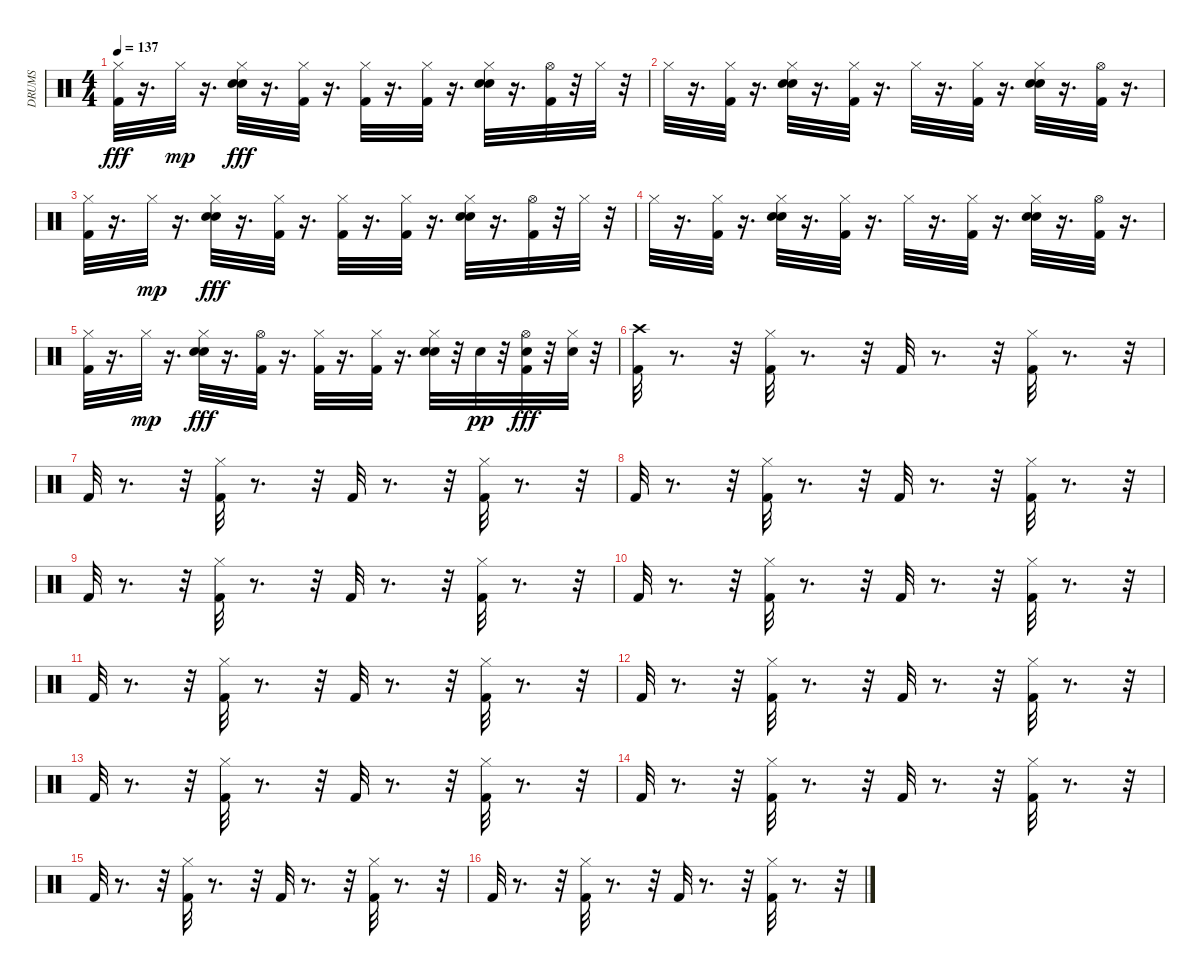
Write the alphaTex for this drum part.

\track ("DRUMS" "DRUMS") {instrument percussion}
\staff {score}
\articulation defaults
\ts (4 4)
\tempo 137
\clef neutral
\ks c
("Hi-Hat (closed)" "Kick (hit) 2").32{dy fff} r.16{d} "Hi-Hat (closed)".32{dy mp} r.16{d} ("Hand Clap (hit)" "Hi-Hat (closed)" "Snare (hit) 2").32{dy fff} r.16{d} ("Hi-Hat (closed)" "Kick (hit) 2").32 r.16{d} ("Hi-Hat (closed)" "Kick (hit) 2").32 r.16{d} ("Hi-Hat (closed)" "Kick (hit) 2").32 r.16{d} ("Hand Clap (hit)" "Hi-Hat (closed)" "Snare (hit) 2").32 r.16{d} ("Hi-Hat (open)" "Kick (hit) 2").32 r.32 "Hi-Hat (closed)".32 r.32 |
"Hi-Hat (closed)".32 r.16{d} ("Hi-Hat (closed)" "Kick (hit) 2").32 r.16{d} ("Hand Clap (hit)" "Hi-Hat (closed)" "Snare (hit) 2").32 r.16{d} ("Hi-Hat (closed)" "Kick (hit) 2").32 r.16{d} "Hi-Hat (closed)".32 r.16{d} ("Hi-Hat (closed)" "Kick (hit) 2").32 r.16{d} ("Hand Clap (hit)" "Hi-Hat (closed)" "Snare (hit) 2").32 r.16{d} ("Hi-Hat (open)" "Kick (hit) 2").32 r.16{d} |
("Hi-Hat (closed)" "Kick (hit) 2").32 r.16{d} "Hi-Hat (closed)".32{dy mp} r.16{d} ("Hand Clap (hit)" "Hi-Hat (closed)" "Snare (hit) 2").32{dy fff} r.16{d} ("Hi-Hat (closed)" "Kick (hit) 2").32 r.16{d} ("Hi-Hat (closed)" "Kick (hit) 2").32 r.16{d} ("Hi-Hat (closed)" "Kick (hit) 2").32 r.16{d} ("Hand Clap (hit)" "Hi-Hat (closed)" "Snare (hit) 2").32 r.16{d} ("Hi-Hat (open)" "Kick (hit) 2").32 r.32 "Hi-Hat (closed)".32 r.32 |
"Hi-Hat (closed)".32 r.16{d} ("Hi-Hat (closed)" "Kick (hit) 2").32 r.16{d} ("Hand Clap (hit)" "Hi-Hat (closed)" "Snare (hit) 2").32 r.16{d} ("Hi-Hat (closed)" "Kick (hit) 2").32 r.16{d} "Hi-Hat (closed)".32 r.16{d} ("Hi-Hat (closed)" "Kick (hit) 2").32 r.16{d} ("Hand Clap (hit)" "Hi-Hat (closed)" "Snare (hit) 2").32 r.16{d} ("Hi-Hat (open)" "Kick (hit) 2").32 r.16{d} |
("Kick (hit) 2" "Hi-Hat (closed)").32 r.16{d} "Hi-Hat (closed)".32{dy mp} r.16{d} ("Hand Clap (hit)" "Hi-Hat (closed)" "Snare (hit) 2").32{dy fff} r.16{d} ("Hi-Hat (open)" "Kick (hit) 2").32 r.16{d} ("Hi-Hat (closed)" "Kick (hit) 2").32 r.16{d} ("Hi-Hat (closed)" "Kick (hit) 2").32 r.16{d} ("Hand Clap (hit)" "Hi-Hat (closed)" "Snare (hit) 2").32 r.32 "Snare (hit) 2".32{dy pp} r.32 ("Hi-Hat (open)" "Snare (hit) 2" "Kick (hit) 2").32{dy fff} r.32 ("Hi-Hat (closed)" "Snare (hit) 2").32 r.32 |
("Crash high (hit)" "Kick (hit) 2").32 r.8{d} r.32 ("Hi-Hat (closed)" "Kick (hit) 2").32 r.8{d} r.32 "Kick (hit) 2".32 r.8{d} r.32 ("Hi-Hat (closed)" "Kick (hit) 2").32 r.8{d} r.32 |
"Kick (hit) 2".32 r.8{d} r.32 ("Hi-Hat (closed)" "Kick (hit) 2").32 r.8{d} r.32 "Kick (hit) 2".32 r.8{d} r.32 ("Hi-Hat (closed)" "Kick (hit) 2").32 r.8{d} r.32 |
"Kick (hit) 2".32 r.8{d} r.32 ("Hi-Hat (closed)" "Kick (hit) 2").32 r.8{d} r.32 "Kick (hit) 2".32 r.8{d} r.32 ("Hi-Hat (closed)" "Kick (hit) 2").32 r.8{d} r.32 |
"Kick (hit) 2".32 r.8{d} r.32 ("Hi-Hat (closed)" "Kick (hit) 2").32 r.8{d} r.32 "Kick (hit) 2".32 r.8{d} r.32 ("Hi-Hat (closed)" "Kick (hit) 2").32 r.8{d} r.32 |
"Kick (hit) 2".32 r.8{d} r.32 ("Hi-Hat (closed)" "Kick (hit) 2").32 r.8{d} r.32 "Kick (hit) 2".32 r.8{d} r.32 ("Hi-Hat (closed)" "Kick (hit) 2").32 r.8{d} r.32 |
"Kick (hit) 2".32 r.8{d} r.32 ("Hi-Hat (closed)" "Kick (hit) 2").32 r.8{d} r.32 "Kick (hit) 2".32 r.8{d} r.32 ("Hi-Hat (closed)" "Kick (hit) 2").32 r.8{d} r.32 |
"Kick (hit) 2".32 r.8{d} r.32 ("Hi-Hat (closed)" "Kick (hit) 2").32 r.8{d} r.32 "Kick (hit) 2".32 r.8{d} r.32 ("Hi-Hat (closed)" "Kick (hit) 2").32 r.8{d} r.32 |
"Kick (hit) 2".32 r.8{d} r.32 ("Hi-Hat (closed)" "Kick (hit) 2").32 r.8{d} r.32 "Kick (hit) 2".32 r.8{d} r.32 ("Hi-Hat (closed)" "Kick (hit) 2").32 r.8{d} r.32 |
"Kick (hit) 2".32 r.8{d} r.32 ("Hi-Hat (closed)" "Kick (hit) 2").32 r.8{d} r.32 "Kick (hit) 2".32 r.8{d} r.32 ("Hi-Hat (closed)" "Kick (hit) 2").32 r.8{d} r.32 |
"Kick (hit) 2".32 r.8{d} r.32 ("Hi-Hat (closed)" "Kick (hit) 2").32 r.8{d} r.32 "Kick (hit) 2".32 r.8{d} r.32 ("Hi-Hat (closed)" "Kick (hit) 2").32 r.8{d} r.32 |
"Kick (hit) 2".32 r.8{d} r.32 ("Hi-Hat (closed)" "Kick (hit) 2").32 r.8{d} r.32 "Kick (hit) 2".32 r.8{d} r.32 ("Hi-Hat (closed)" "Kick (hit) 2").32 r.8{d} r.32
